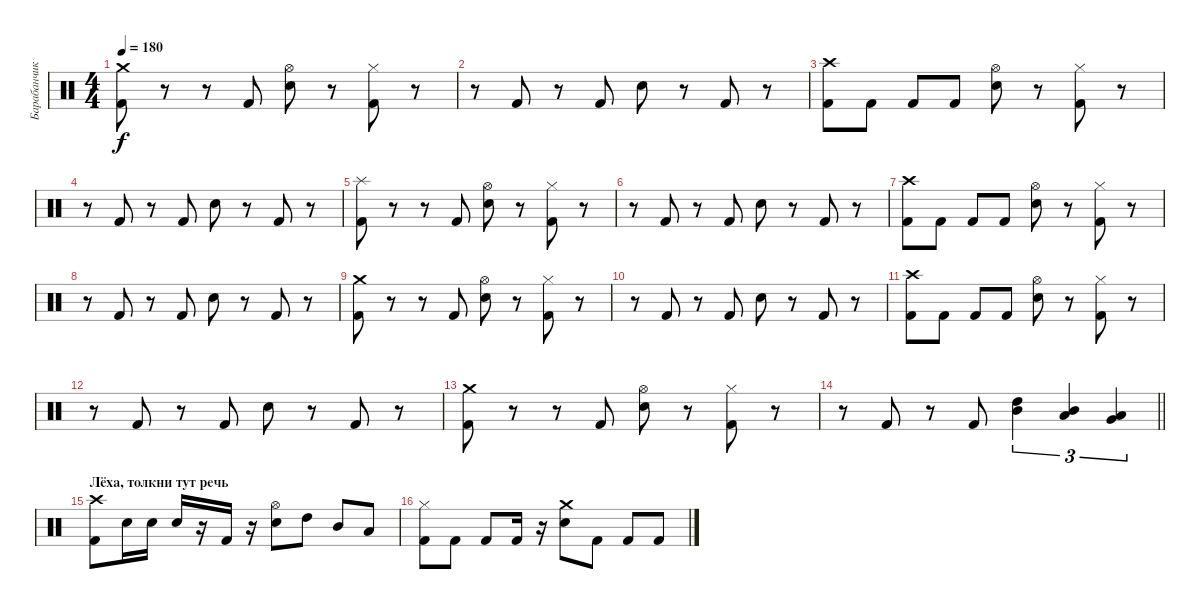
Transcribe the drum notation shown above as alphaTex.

\track ("Барабанчики" "Барабанчик") {instrument percussion}
\staff {score}
\articulation defaults
\ts (4 4)
\tempo 180
\clef neutral
\ks c
("Crash medium (hit)" "Kick (hit) 2").8{dy f} r.8 r.8 "Kick (hit) 2".8 ("Hi-Hat (open)" "Electric Snare (hit)").8 r.8 ("Hi-Hat (closed)" "Kick (hit) 2").8 r.8 |
r.8 "Kick (hit) 2".8 r.8 "Kick (hit) 2".8 "Electric Snare (hit)".8 r.8 "Kick (hit) 2".8 r.8 |
("Crash high (hit)" "Kick (hit) 2").8 "Kick (hit) 2".8 "Kick (hit) 2".8 "Kick (hit) 2".8 ("Hi-Hat (open)" "Electric Snare (hit)").8 r.8 ("Hi-Hat (closed)" "Kick (hit) 2").8 r.8 |
r.8 "Kick (hit) 2".8 r.8 "Kick (hit) 2".8 "Electric Snare (hit)".8 r.8 "Kick (hit) 2".8 r.8 |
("Splash (hit)" "Kick (hit) 2").8 r.8 r.8 "Kick (hit) 2".8 ("Hi-Hat (open)" "Electric Snare (hit)").8 r.8 ("Hi-Hat (closed)" "Kick (hit) 2").8 r.8 |
r.8 "Kick (hit) 2".8 r.8 "Kick (hit) 2".8 "Electric Snare (hit)".8 r.8 "Kick (hit) 2".8 r.8 |
("Crash high (hit)" "Kick (hit) 2").8 "Kick (hit) 2".8 "Kick (hit) 2".8 "Kick (hit) 2".8 ("Hi-Hat (open)" "Electric Snare (hit)").8 r.8 ("Hi-Hat (closed)" "Kick (hit) 2").8 r.8 |
r.8 "Kick (hit) 2".8 r.8 "Kick (hit) 2".8 "Electric Snare (hit)".8 r.8 "Kick (hit) 2".8 r.8 |
("Crash medium (hit)" "Kick (hit) 2").8 r.8 r.8 "Kick (hit) 2".8 ("Hi-Hat (open)" "Electric Snare (hit)").8 r.8 ("Hi-Hat (closed)" "Kick (hit) 2").8 r.8 |
r.8 "Kick (hit) 2".8 r.8 "Kick (hit) 2".8 "Electric Snare (hit)".8 r.8 "Kick (hit) 2".8 r.8 |
("Crash high (hit)" "Kick (hit) 2").8 "Kick (hit) 2".8 "Kick (hit) 2".8 "Kick (hit) 2".8 ("Hi-Hat (open)" "Electric Snare (hit)").8 r.8 ("Hi-Hat (closed)" "Kick (hit) 2").8 r.8 |
r.8 "Kick (hit) 2".8 r.8 "Kick (hit) 2".8 "Electric Snare (hit)".8 r.8 "Kick (hit) 2".8 r.8 |
("Crash medium (hit)" "Kick (hit) 2").8 r.8 r.8 "Kick (hit) 2".8 ("Hi-Hat (open)" "Electric Snare (hit)").8 r.8 ("Hi-Hat (closed)" "Kick (hit) 2").8 r.8 |
\barLineRight lightlight
r.8 "Kick (hit) 2".8 r.8 "Kick (hit) 2".8 ("High Tom (hit)" "Mid Tom (hit)").4{tu (3 2)} ("Low Tom (hit)" "Mid Tom (hit)").4{tu (3 2)} ("Very Low Tom (hit)" "Low Tom (hit)").4{tu (3 2)} |
\section ("" "Лёха, толкни тут речь")
("Crash high (hit)" "Kick (hit) 2").8 "Electric Snare (hit)".16 "Electric Snare (hit)".16 "Electric Snare (hit)".16 r.16 "Kick (hit) 2".16 r.16 ("Hi-Hat (open)" "Electric Snare (hit)").8 "High Tom (hit)".8 "Mid Tom (hit)".8 "Low Tom (hit)".8 |
("Hi-Hat (closed)" "Kick (hit) 2").8 "Kick (hit) 2".8 "Kick (hit) 2".8 "Kick (hit) 2".16 r.16 ("Crash medium (hit)" "Electric Snare (hit)").8 "Kick (hit) 2".8 "Kick (hit) 2".8 "Kick (hit) 2".8
